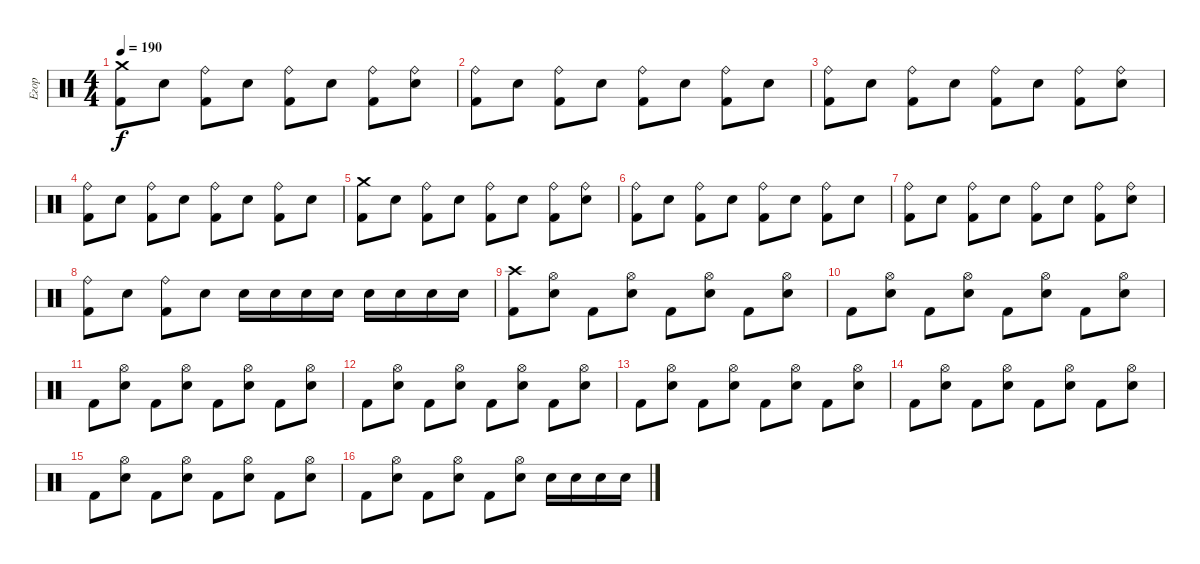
\track ("Егор" "Егор") {instrument percussion}
\staff {score}
\articulation defaults
\ts (4 4)
\tempo 190
\clef neutral
\ks c
("Kick (hit) 2" "Crash medium (hit)").8{dy f} "Snare (hit) 2".8 ("Kick (hit) 2" "Ride (bell)").8 "Snare (hit) 2".8 ("Kick (hit) 2" "Ride (bell)").8 "Snare (hit) 2".8 ("Kick (hit) 2" "Ride (bell)").8 ("Snare (hit) 2" "Ride (bell)").8 |
("Kick (hit) 2" "Ride (bell)").8 "Snare (hit) 2".8 ("Kick (hit) 2" "Ride (bell)").8 "Snare (hit) 2".8 ("Kick (hit) 2" "Ride (bell)").8 "Snare (hit) 2".8 ("Kick (hit) 2" "Ride (bell)").8 "Snare (hit) 2".8 |
("Kick (hit) 2" "Ride (bell)").8 "Snare (hit) 2".8 ("Kick (hit) 2" "Ride (bell)").8 "Snare (hit) 2".8 ("Kick (hit) 2" "Ride (bell)").8 "Snare (hit) 2".8 ("Kick (hit) 2" "Ride (bell)").8 ("Snare (hit) 2" "Ride (bell)").8 |
("Kick (hit) 2" "Ride (bell)").8 "Snare (hit) 2".8 ("Kick (hit) 2" "Ride (bell)").8 "Snare (hit) 2".8 ("Kick (hit) 2" "Ride (bell)").8 "Snare (hit) 2".8 ("Kick (hit) 2" "Ride (bell)").8 "Snare (hit) 2".8 |
("Kick (hit) 2" "Crash medium (hit)").8 "Snare (hit) 2".8 ("Kick (hit) 2" "Ride (bell)").8 "Snare (hit) 2".8 ("Kick (hit) 2" "Ride (bell)").8 "Snare (hit) 2".8 ("Kick (hit) 2" "Ride (bell)").8 ("Snare (hit) 2" "Ride (bell)").8 |
("Kick (hit) 2" "Ride (bell)").8 "Snare (hit) 2".8 ("Kick (hit) 2" "Ride (bell)").8 "Snare (hit) 2".8 ("Kick (hit) 2" "Ride (bell)").8 "Snare (hit) 2".8 ("Kick (hit) 2" "Ride (bell)").8 "Snare (hit) 2".8 |
("Kick (hit) 2" "Ride (bell)").8 "Snare (hit) 2".8 ("Kick (hit) 2" "Ride (bell)").8 "Snare (hit) 2".8 ("Kick (hit) 2" "Ride (bell)").8 "Snare (hit) 2".8 ("Kick (hit) 2" "Ride (bell)").8 ("Snare (hit) 2" "Ride (bell)").8 |
("Ride (bell)" "Kick (hit) 2").8 "Snare (hit) 2".8 ("Ride (bell)" "Kick (hit) 2").8 "Snare (hit) 2".8 "Snare (hit) 2".16 "Snare (hit) 2".16 "Snare (hit) 2".16 "Snare (hit) 2".16 "Snare (hit) 2".16 "Snare (hit) 2".16 "Snare (hit) 2".16 "Snare (hit) 2".16 |
("Crash high (hit)" "Kick (hit) 2").8 ("Hi-Hat (open)" "Snare (hit) 2").8 "Kick (hit) 2".8 ("Hi-Hat (open)" "Snare (hit) 2").8 "Kick (hit) 2".8 ("Hi-Hat (open)" "Snare (hit) 2").8 "Kick (hit) 2".8 ("Hi-Hat (open)" "Snare (hit) 2").8 |
"Kick (hit) 2".8 ("Hi-Hat (open)" "Snare (hit) 2").8 "Kick (hit) 2".8 ("Hi-Hat (open)" "Snare (hit) 2").8 "Kick (hit) 2".8 ("Hi-Hat (open)" "Snare (hit) 2").8 "Kick (hit) 2".8 ("Hi-Hat (open)" "Snare (hit) 2").8 |
"Kick (hit) 2".8 ("Hi-Hat (open)" "Snare (hit) 2").8 "Kick (hit) 2".8 ("Hi-Hat (open)" "Snare (hit) 2").8 "Kick (hit) 2".8 ("Hi-Hat (open)" "Snare (hit) 2").8 "Kick (hit) 2".8 ("Hi-Hat (open)" "Snare (hit) 2").8 |
"Kick (hit) 2".8 ("Hi-Hat (open)" "Snare (hit) 2").8 "Kick (hit) 2".8 ("Hi-Hat (open)" "Snare (hit) 2").8 "Kick (hit) 2".8 ("Hi-Hat (open)" "Snare (hit) 2").8 "Kick (hit) 2".8 ("Hi-Hat (open)" "Snare (hit) 2").8 |
"Kick (hit) 2".8 ("Hi-Hat (open)" "Snare (hit) 2").8 "Kick (hit) 2".8 ("Hi-Hat (open)" "Snare (hit) 2").8 "Kick (hit) 2".8 ("Hi-Hat (open)" "Snare (hit) 2").8 "Kick (hit) 2".8 ("Hi-Hat (open)" "Snare (hit) 2").8 |
"Kick (hit) 2".8 ("Hi-Hat (open)" "Snare (hit) 2").8 "Kick (hit) 2".8 ("Hi-Hat (open)" "Snare (hit) 2").8 "Kick (hit) 2".8 ("Hi-Hat (open)" "Snare (hit) 2").8 "Kick (hit) 2".8 ("Hi-Hat (open)" "Snare (hit) 2").8 |
"Kick (hit) 2".8 ("Hi-Hat (open)" "Snare (hit) 2").8 "Kick (hit) 2".8 ("Hi-Hat (open)" "Snare (hit) 2").8 "Kick (hit) 2".8 ("Hi-Hat (open)" "Snare (hit) 2").8 "Kick (hit) 2".8 ("Hi-Hat (open)" "Snare (hit) 2").8 |
"Kick (hit) 2".8 ("Hi-Hat (open)" "Snare (hit) 2").8 "Kick (hit) 2".8 ("Hi-Hat (open)" "Snare (hit) 2").8 "Kick (hit) 2".8 ("Hi-Hat (open)" "Snare (hit) 2").8 "Snare (hit) 2".16 "Snare (hit) 2".16 "Snare (hit) 2".16 "Snare (hit) 2".16
